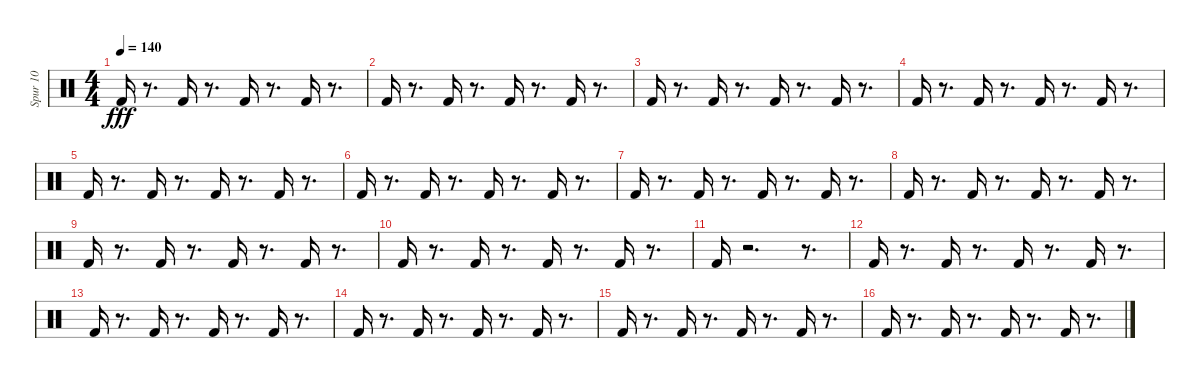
\track ("Spur 10" "Spur 10") {instrument percussion}
\staff {score}
\articulation defaults
\ts (4 4)
\tempo 140
\clef neutral
\ks c "Kick (hit) 2".16{dy fff}
r.8{d} "Kick (hit) 2".16 r.8{d} "Kick (hit) 2".16 r.8{d} "Kick (hit) 2".16 r.8{d} |
"Kick (hit) 2".16 r.8{d} "Kick (hit) 2".16 r.8{d} "Kick (hit) 2".16 r.8{d} "Kick (hit) 2".16 r.8{d} |
"Kick (hit) 2".16 r.8{d} "Kick (hit) 2".16 r.8{d} "Kick (hit) 2".16 r.8{d} "Kick (hit) 2".16 r.8{d} |
"Kick (hit) 2".16 r.8{d} "Kick (hit) 2".16 r.8{d} "Kick (hit) 2".16 r.8{d} "Kick (hit) 2".16 r.8{d} |
"Kick (hit) 2".16 r.8{d} "Kick (hit) 2".16 r.8{d} "Kick (hit) 2".16 r.8{d} "Kick (hit) 2".16 r.8{d} |
"Kick (hit) 2".16 r.8{d} "Kick (hit) 2".16 r.8{d} "Kick (hit) 2".16 r.8{d} "Kick (hit) 2".16 r.8{d} |
"Kick (hit) 2".16 r.8{d} "Kick (hit) 2".16 r.8{d} "Kick (hit) 2".16 r.8{d} "Kick (hit) 2".16 r.8{d} |
"Kick (hit) 2".16 r.8{d} "Kick (hit) 2".16 r.8{d} "Kick (hit) 2".16 r.8{d} "Kick (hit) 2".16 r.8{d} |
"Kick (hit) 2".16 r.8{d} "Kick (hit) 2".16 r.8{d} "Kick (hit) 2".16 r.8{d} "Kick (hit) 2".16 r.8{d} |
"Kick (hit) 2".16 r.8{d} "Kick (hit) 2".16 r.8{d} "Kick (hit) 2".16 r.8{d} "Kick (hit) 2".16 r.8{d} |
"Kick (hit) 2".16 r.2{d} r.8{d} |
"Kick (hit) 2".16 r.8{d} "Kick (hit) 2".16 r.8{d} "Kick (hit) 2".16 r.8{d} "Kick (hit) 2".16 r.8{d} |
"Kick (hit) 2".16 r.8{d} "Kick (hit) 2".16 r.8{d} "Kick (hit) 2".16 r.8{d} "Kick (hit) 2".16 r.8{d} |
"Kick (hit) 2".16 r.8{d} "Kick (hit) 2".16 r.8{d} "Kick (hit) 2".16 r.8{d} "Kick (hit) 2".16 r.8{d} |
"Kick (hit) 2".16 r.8{d} "Kick (hit) 2".16 r.8{d} "Kick (hit) 2".16 r.8{d} "Kick (hit) 2".16 r.8{d} |
"Kick (hit) 2".16 r.8{d} "Kick (hit) 2".16 r.8{d} "Kick (hit) 2".16 r.8{d} "Kick (hit) 2".16 r.8{d}
